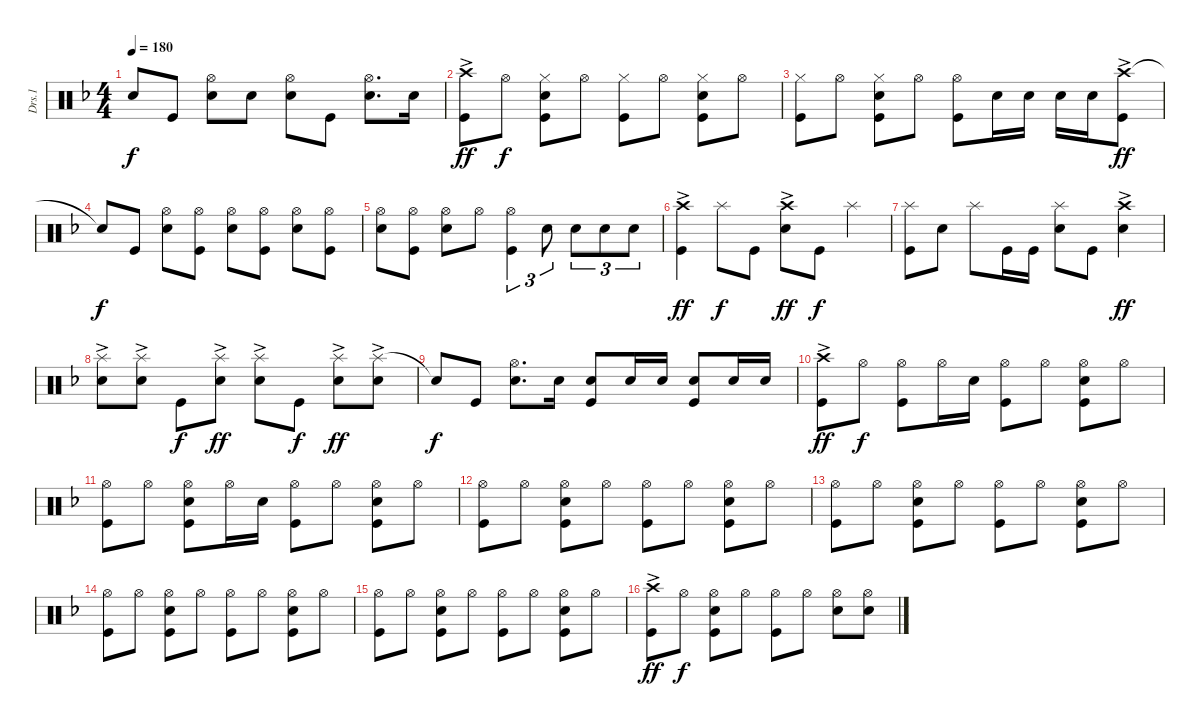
\track ("Drs.1" "Drs.1") {instrument percussion}
\staff {score}
\articulation defaults
\ts (4 4)
\tempo 180
\clef neutral
\ks f "Snare (hit)"{t}.8{dy f} "Kick (hit)".8
("Hi-Hat (open)" "Snare (hit) 2").8 "Snare (hit) 2".8 ("Hi-Hat (open)" "Snare (hit) 2").8 "Kick (hit)".8 ("Hi-Hat (open)" "Snare (hit) 2").8{d} "Snare (hit) 2".16 |
("Crash high (hit)"{ac} "Kick (hit)").8{dy ff} "Hi-Hat (open)".8{dy f} ("Hi-Hat (closed)" "Snare (hit) 2" "Kick (hit)").8 "Hi-Hat (open)".8 ("Hi-Hat (closed)" "Kick (hit)").8 "Hi-Hat (open)".8 ("Hi-Hat (closed)" "Snare (hit) 2" "Kick (hit)").8 "Hi-Hat (open)".8 |
("Hi-Hat (closed)" "Kick (hit)").8 "Hi-Hat (open)".8 ("Hi-Hat (closed)" "Snare (hit) 2" "Kick (hit)").8 "Hi-Hat (open)".8 ("Hi-Hat (open)" "Kick (hit)").8 "Snare (hit) 2".16 "Snare (hit) 2".16 "Snare (hit) 2".16 "Snare (hit) 2".16 ("Crash high (hit)"{ac} "Kick (hit)").8{dy ff} |
"Snare (hit)"{t}.8{dy f} "Kick (hit)".8 ("Hi-Hat (open)" "Snare (hit) 2").8 ("Hi-Hat (open)" "Kick (hit)").8 ("Hi-Hat (open)" "Snare (hit) 2").8 ("Hi-Hat (open)" "Kick (hit)").8 ("Hi-Hat (open)" "Snare (hit) 2").8 ("Hi-Hat (open)" "Kick (hit)").8 |
("Hi-Hat (open)" "Snare (hit) 2").8 ("Hi-Hat (open)" "Kick (hit)").8 ("Hi-Hat (open)" "Snare (hit) 2").8 "Hi-Hat (open)".8 ("Hi-Hat (open)" "Kick (hit)").4{tu (3 2)} "Snare (hit) 2".8{tu (3 2)} "Snare (hit) 2".8{tu (3 2)} "Snare (hit) 2".8{tu (3 2)} "Snare (hit) 2".8{tu (3 2)} |
("Crash high (hit)"{ac} "Kick (hit)").4{dy ff} "Splash (hit)".8{dy f} "Kick (hit)".8 ("Crash high (hit)"{ac} "Snare (hit) 2").8{dy ff} "Kick (hit)".8{dy f} "Splash (hit)".4 |
("Splash (hit)" "Kick (hit)").8 "Snare (hit) 2".8 "Splash (hit)".8 "Kick (hit)".16 "Kick (hit)".16 ("Splash (hit)" "Snare (hit) 2").8 "Kick (hit)".8 ("Crash high (hit)"{ac} "Snare (hit) 2").4{dy ff} |
("Splash (hit)"{ac} "Snare (hit) 2").8 ("Splash (hit)"{ac} "Snare (hit) 2").8 "Kick (hit)".8{dy f} ("Splash (hit)"{ac} "Snare (hit) 2").8{dy ff} ("Splash (hit)"{ac} "Snare (hit) 2").8 "Kick (hit)".8{dy f} ("Splash (hit)"{ac} "Snare (hit) 2").8{dy ff} ("Splash (hit)"{ac} "Snare (hit) 2").8 |
"Snare (hit)"{t}.8{dy f} "Kick (hit)".8 ("Hi-Hat (open)" "Snare (hit) 2").8{d} "Snare (hit) 2".16 ("Snare (hit) 2" "Kick (hit)").8 "Snare (hit) 2".16 "Snare (hit) 2".16 ("Snare (hit) 2" "Kick (hit)").8 "Snare (hit) 2".16 "Snare (hit) 2".16 |
("Crash high (hit)"{ac} "Kick (hit)").8{dy ff} "Hi-Hat (open)".8{dy f} ("Hi-Hat (open)" "Kick (hit)").8 "Hi-Hat (open)".16 "Snare (hit) 2".16 ("Hi-Hat (open)" "Kick (hit)").8 "Hi-Hat (open)".8 ("Hi-Hat (open)" "Snare (hit) 2" "Kick (hit)").8 "Hi-Hat (open)".8 |
("Hi-Hat (open)" "Kick (hit)").8 "Hi-Hat (open)".8 ("Hi-Hat (open)" "Snare (hit) 2" "Kick (hit)").8 "Hi-Hat (open)".16 "Snare (hit) 2".16 ("Hi-Hat (open)" "Kick (hit)").8 "Hi-Hat (open)".8 ("Hi-Hat (open)" "Snare (hit) 2" "Kick (hit)").8 "Hi-Hat (open)".8 |
("Hi-Hat (open)" "Kick (hit)").8 "Hi-Hat (open)".8 ("Hi-Hat (open)" "Snare (hit) 2" "Kick (hit)").8 "Hi-Hat (open)".8 ("Hi-Hat (open)" "Kick (hit)").8 "Hi-Hat (open)".8 ("Hi-Hat (open)" "Snare (hit) 2" "Kick (hit)").8 "Hi-Hat (open)".8 |
("Hi-Hat (open)" "Kick (hit)").8 "Hi-Hat (open)".8 ("Hi-Hat (open)" "Snare (hit) 2" "Kick (hit)").8 "Hi-Hat (open)".8 ("Hi-Hat (open)" "Kick (hit)").8 "Hi-Hat (open)".8 ("Hi-Hat (open)" "Snare (hit) 2" "Kick (hit)").8 "Hi-Hat (open)".8 |
("Hi-Hat (open)" "Kick (hit)").8 "Hi-Hat (open)".8 ("Hi-Hat (open)" "Snare (hit) 2" "Kick (hit)").8 "Hi-Hat (open)".8 ("Hi-Hat (open)" "Kick (hit)").8 "Hi-Hat (open)".8 ("Hi-Hat (open)" "Snare (hit) 2" "Kick (hit)").8 "Hi-Hat (open)".8 |
("Hi-Hat (open)" "Kick (hit)").8 "Hi-Hat (open)".8 ("Hi-Hat (open)" "Snare (hit) 2" "Kick (hit)").8 "Hi-Hat (open)".8 ("Hi-Hat (open)" "Kick (hit)").8 "Hi-Hat (open)".8 ("Hi-Hat (open)" "Snare (hit) 2" "Kick (hit)").8 "Hi-Hat (open)".8 |
("Crash high (hit)"{ac} "Kick (hit)").8{dy ff} "Hi-Hat (open)".8{dy f} ("Hi-Hat (open)" "Snare (hit) 2" "Kick (hit)").8 "Hi-Hat (open)".8 ("Hi-Hat (open)" "Kick (hit)").8 "Hi-Hat (open)".8 ("Hi-Hat (open)" "Snare (hit) 2").8 ("Hi-Hat (open)" "Snare (hit) 2").8
